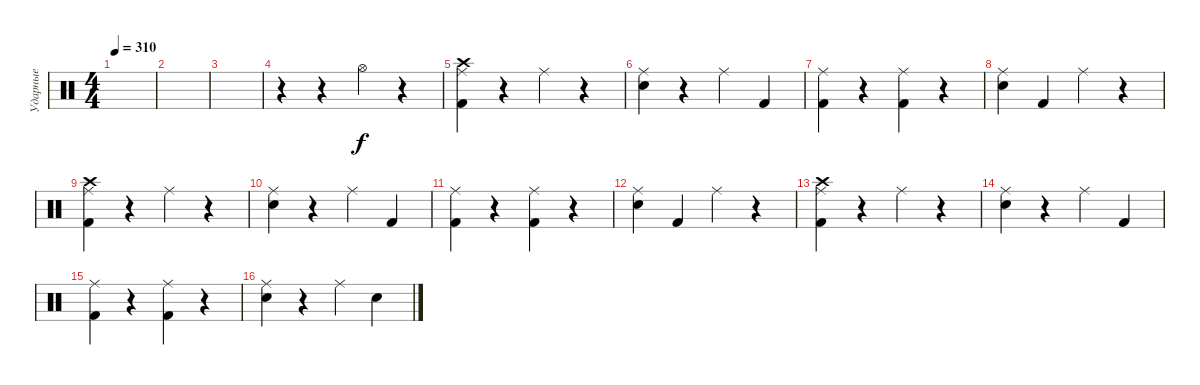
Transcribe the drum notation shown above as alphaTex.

\track ("Ударные" "Ударные") {instrument percussion}
\staff {score}
\articulation defaults
\ts (4 4)
\tempo 310
\clef neutral
\ks c
|
|
|
r.4 r.4 "Hi-Hat (open)".4 r.4 |
("Crash high (hit)" "Ride (middle)" "Kick (hit) 2").4 r.4 "Ride (middle)".4 r.4 |
("Ride (middle)" "Electric Snare (hit)").4 r.4 "Ride (middle)".4 "Kick (hit) 2".4 |
("Ride (middle)" "Kick (hit) 2").4 r.4 ("Ride (middle)" "Kick (hit) 2").4 r.4 |
("Ride (middle)" "Electric Snare (hit)").4 "Kick (hit) 2".4 "Ride (middle)".4 r.4 |
("Crash high (hit)" "Ride (middle)" "Kick (hit) 2").4 r.4 "Ride (middle)".4 r.4 |
("Ride (middle)" "Electric Snare (hit)").4 r.4 "Ride (middle)".4 "Kick (hit) 2".4 |
("Ride (middle)" "Kick (hit) 2").4 r.4 ("Ride (middle)" "Kick (hit) 2").4 r.4 |
("Ride (middle)" "Electric Snare (hit)").4 "Kick (hit) 2".4 "Ride (middle)".4 r.4 |
("Crash high (hit)" "Ride (middle)" "Kick (hit) 2").4 r.4 "Ride (middle)".4 r.4 |
("Ride (middle)" "Electric Snare (hit)").4 r.4 "Ride (middle)".4 "Kick (hit) 2".4 |
("Ride (middle)" "Kick (hit) 2").4 r.4 ("Ride (middle)" "Kick (hit) 2").4 r.4 |
("Ride (middle)" "Electric Snare (hit)").4 r.4 "Ride (middle)".4 "Electric Snare (hit)".4
